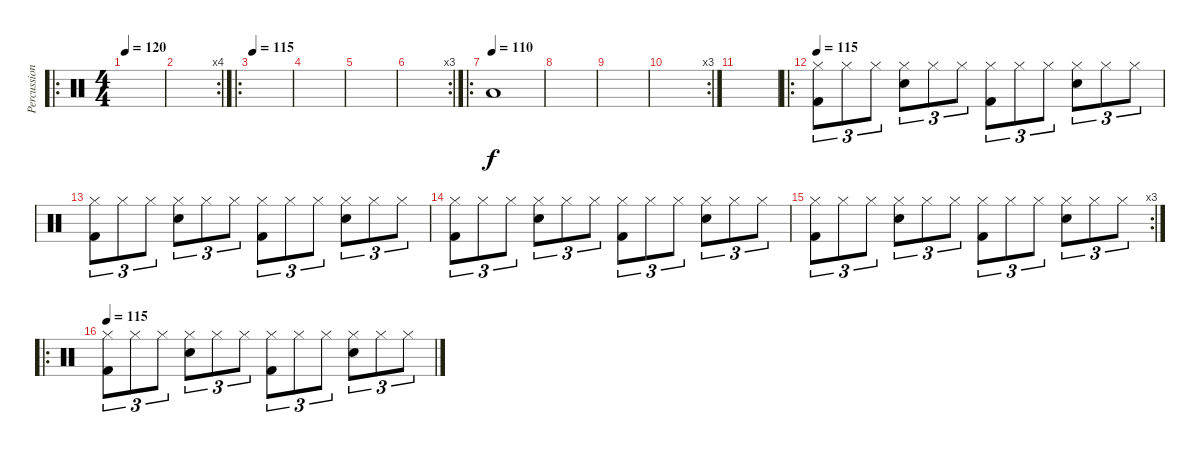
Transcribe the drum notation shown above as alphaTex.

\track ("Percussion" "Percussion") {instrument percussion}
\staff {score}
\articulation defaults
\ro
\ts (4 4)
\tempo 120
\tempo 95
\tempo 120
\clef neutral
\ks c
|
\rc 4
|
\ro
\tempo 115
|
|
|
\rc 3
|
\ro
\tempo (110)
"Low Floor Tom (hit)".1 |
|
|
\rc 3
|
|
\ro
\tempo 115
("Hi-Hat (closed)" "Kick (hit) 2").8{tu (3 2)} "Hi-Hat (closed)".8{tu (3 2)} "Hi-Hat (closed)".8{tu (3 2)} ("Hi-Hat (closed)" "Snare (hit) 2").8{tu (3 2)} "Hi-Hat (closed)".8{tu (3 2)} "Hi-Hat (closed)".8{tu (3 2)} ("Hi-Hat (closed)" "Kick (hit) 2").8{tu (3 2)} "Hi-Hat (closed)".8{tu (3 2)} "Hi-Hat (closed)".8{tu (3 2)} ("Hi-Hat (closed)" "Snare (hit) 2").8{tu (3 2)} "Hi-Hat (closed)".8{tu (3 2)} "Hi-Hat (closed)".8{tu (3 2)} |
("Hi-Hat (closed)" "Kick (hit) 2").8{tu (3 2)} "Hi-Hat (closed)".8{tu (3 2)} "Hi-Hat (closed)".8{tu (3 2)} ("Hi-Hat (closed)" "Snare (hit) 2").8{tu (3 2)} "Hi-Hat (closed)".8{tu (3 2)} "Hi-Hat (closed)".8{tu (3 2)} ("Hi-Hat (closed)" "Kick (hit) 2").8{tu (3 2)} "Hi-Hat (closed)".8{tu (3 2)} "Hi-Hat (closed)".8{tu (3 2)} ("Hi-Hat (closed)" "Snare (hit) 2").8{tu (3 2)} "Hi-Hat (closed)".8{tu (3 2)} "Hi-Hat (closed)".8{tu (3 2)} |
("Hi-Hat (closed)" "Kick (hit) 2").8{tu (3 2)} "Hi-Hat (closed)".8{tu (3 2)} "Hi-Hat (closed)".8{tu (3 2)} ("Hi-Hat (closed)" "Snare (hit) 2").8{tu (3 2)} "Hi-Hat (closed)".8{tu (3 2)} "Hi-Hat (closed)".8{tu (3 2)} ("Hi-Hat (closed)" "Kick (hit) 2").8{tu (3 2)} "Hi-Hat (closed)".8{tu (3 2)} "Hi-Hat (closed)".8{tu (3 2)} ("Hi-Hat (closed)" "Snare (hit) 2").8{tu (3 2)} "Hi-Hat (closed)".8{tu (3 2)} "Hi-Hat (closed)".8{tu (3 2)} |
\rc 3
("Hi-Hat (closed)" "Kick (hit) 2").8{tu (3 2)} "Hi-Hat (closed)".8{tu (3 2)} "Hi-Hat (closed)".8{tu (3 2)} ("Hi-Hat (closed)" "Snare (hit) 2").8{tu (3 2)} "Hi-Hat (closed)".8{tu (3 2)} "Hi-Hat (closed)".8{tu (3 2)} ("Hi-Hat (closed)" "Kick (hit) 2").8{tu (3 2)} "Hi-Hat (closed)".8{tu (3 2)} "Hi-Hat (closed)".8{tu (3 2)} ("Hi-Hat (closed)" "Snare (hit) 2").8{tu (3 2)} "Hi-Hat (closed)".8{tu (3 2)} "Hi-Hat (closed)".8{tu (3 2)} |
\ro
\tempo 115
("Hi-Hat (closed)" "Kick (hit) 2").8{tu (3 2)} "Hi-Hat (closed)".8{tu (3 2)} "Hi-Hat (closed)".8{tu (3 2)} ("Hi-Hat (closed)" "Snare (hit) 2").8{tu (3 2)} "Hi-Hat (closed)".8{tu (3 2)} "Hi-Hat (closed)".8{tu (3 2)} ("Hi-Hat (closed)" "Kick (hit) 2").8{tu (3 2)} "Hi-Hat (closed)".8{tu (3 2)} "Hi-Hat (closed)".8{tu (3 2)} ("Hi-Hat (closed)" "Snare (hit) 2").8{tu (3 2)} "Hi-Hat (closed)".8{tu (3 2)} "Hi-Hat (closed)".8{tu (3 2)}
